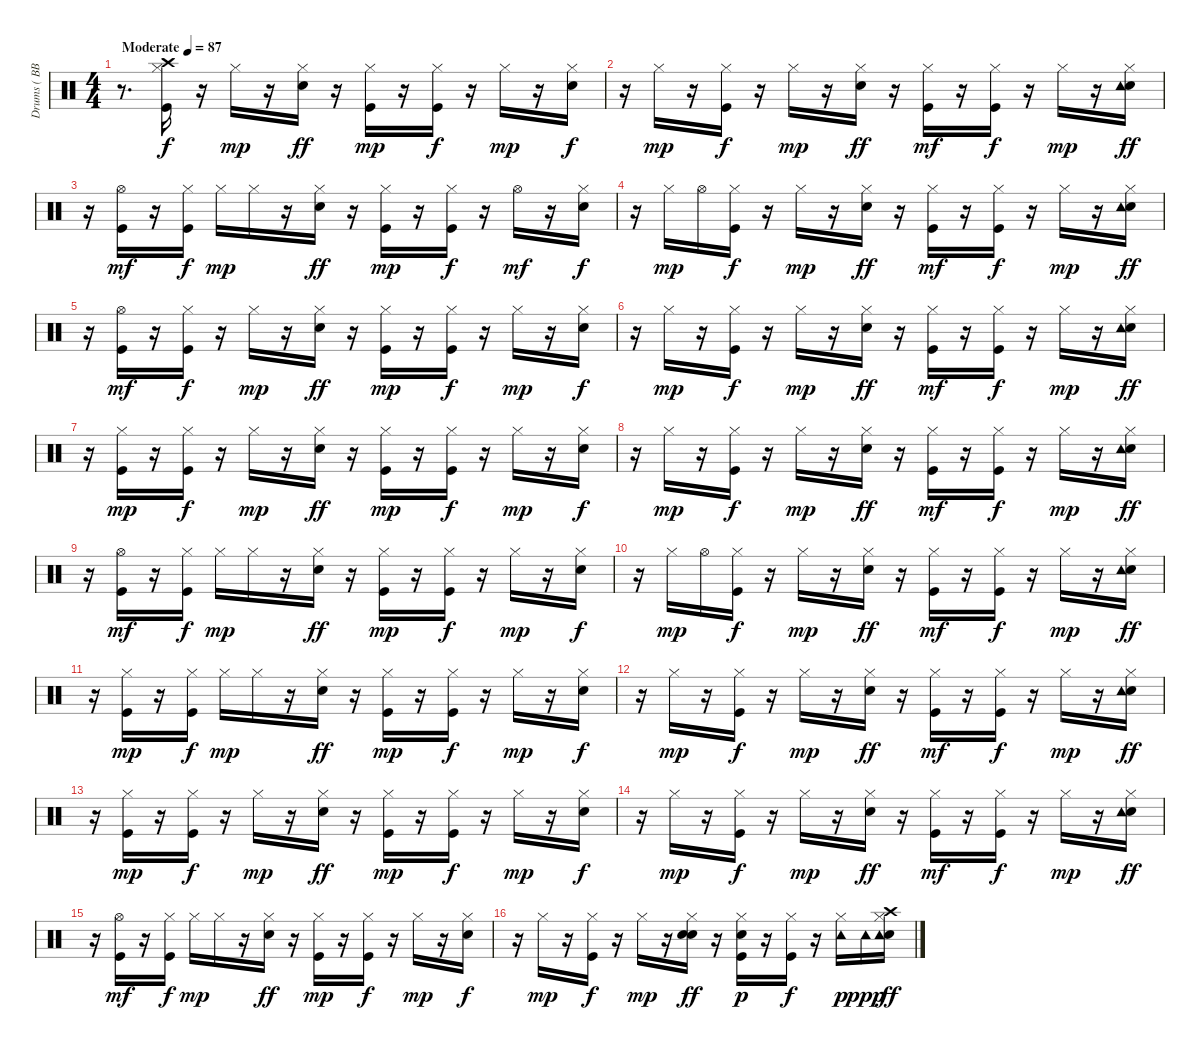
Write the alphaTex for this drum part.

\track ("Drums ( BB )" "Drums ( BB") {instrument percussion}
\staff {score}
\articulation defaults
\ts (4 4)
\tempo (87 "Moderate")
\clef neutral
\ks c
r.8{d dy f} ("Kick (hit)" "Hi-Hat (closed)" "Crash high (hit)").16 r.16 "Hi-Hat (closed)".16{dy mp} r.16 ("Snare (hit) 2" "Hi-Hat (closed)").16{dy ff} r.16 ("Kick (hit)" "Hi-Hat (closed)").16{dy mp} r.16 ("Kick (hit)" "Hi-Hat (closed)").16{dy f} r.16 "Hi-Hat (closed)".16{dy mp} r.16 ("Snare (hit) 2" "Hi-Hat (closed)").16{dy f} |
r.16 "Hi-Hat (closed)".16{dy mp} r.16 ("Kick (hit)" "Hi-Hat (closed)").16{dy f} r.16 "Hi-Hat (closed)".16{dy mp} r.16 ("Snare (hit) 2" "Hi-Hat (closed)").16{dy ff} r.16 ("Kick (hit)" "Hi-Hat (closed)").16{dy mf} r.16 ("Kick (hit)" "Hi-Hat (closed)").16{dy f} r.16 "Hi-Hat (closed)".16{dy mp} r.16 ("Snare (hit) 2" "Hi-Hat (closed)" "Tambourine (hit)").16{dy ff} |
r.16 ("Kick (hit)" "Hi-Hat (open)").16{dy mf} r.16 ("Kick (hit)" "Hi-Hat (closed)").16{dy f} "Hi-Hat (closed)".16{dy mp} "Hi-Hat (closed)".16 r.16 ("Snare (hit) 2" "Hi-Hat (closed)").16{dy ff} r.16 ("Kick (hit)" "Hi-Hat (closed)").16{dy mp} r.16 ("Kick (hit)" "Hi-Hat (closed)").16{dy f} r.16 "Hi-Hat (open)".16{dy mf} r.16 ("Snare (hit) 2" "Hi-Hat (closed)").16{dy f} |
r.16 "Hi-Hat (closed)".16{dy mp} "Hi-Hat (open)".16 ("Kick (hit)" "Hi-Hat (closed)").16{dy f} r.16 "Hi-Hat (closed)".16{dy mp} r.16 ("Snare (hit) 2" "Hi-Hat (closed)").16{dy ff} r.16 ("Kick (hit)" "Hi-Hat (closed)").16{dy mf} r.16 ("Kick (hit)" "Hi-Hat (closed)").16{dy f} r.16 "Hi-Hat (closed)".16{dy mp} r.16 ("Snare (hit) 2" "Hi-Hat (closed)" "Tambourine (hit)").16{dy ff} |
r.16 ("Kick (hit)" "Hi-Hat (open)").16{dy mf} r.16 ("Kick (hit)" "Hi-Hat (closed)").16{dy f} r.16 "Hi-Hat (closed)".16{dy mp} r.16 ("Snare (hit) 2" "Hi-Hat (closed)").16{dy ff} r.16 ("Kick (hit)" "Hi-Hat (closed)").16{dy mp} r.16 ("Kick (hit)" "Hi-Hat (closed)").16{dy f} r.16 "Hi-Hat (closed)".16{dy mp} r.16 ("Snare (hit) 2" "Hi-Hat (closed)").16{dy f} |
r.16 "Hi-Hat (closed)".16{dy mp} r.16 ("Kick (hit)" "Hi-Hat (closed)").16{dy f} r.16 "Hi-Hat (closed)".16{dy mp} r.16 ("Snare (hit) 2" "Hi-Hat (closed)").16{dy ff} r.16 ("Kick (hit)" "Hi-Hat (closed)").16{dy mf} r.16 ("Kick (hit)" "Hi-Hat (closed)").16{dy f} r.16 "Hi-Hat (closed)".16{dy mp} r.16 ("Snare (hit) 2" "Hi-Hat (closed)" "Tambourine (hit)").16{dy ff} |
r.16 ("Kick (hit)" "Hi-Hat (closed)").16{dy mp} r.16 ("Kick (hit)" "Hi-Hat (closed)").16{dy f} r.16 "Hi-Hat (closed)".16{dy mp} r.16 ("Snare (hit) 2" "Hi-Hat (closed)").16{dy ff} r.16 ("Kick (hit)" "Hi-Hat (closed)").16{dy mp} r.16 ("Kick (hit)" "Hi-Hat (closed)").16{dy f} r.16 "Hi-Hat (closed)".16{dy mp} r.16 ("Snare (hit) 2" "Hi-Hat (closed)").16{dy f} |
r.16 "Hi-Hat (closed)".16{dy mp} r.16 ("Kick (hit)" "Hi-Hat (closed)").16{dy f} r.16 "Hi-Hat (closed)".16{dy mp} r.16 ("Snare (hit) 2" "Hi-Hat (closed)").16{dy ff} r.16 ("Kick (hit)" "Hi-Hat (closed)").16{dy mf} r.16 ("Kick (hit)" "Hi-Hat (closed)").16{dy f} r.16 "Hi-Hat (closed)".16{dy mp} r.16 ("Snare (hit) 2" "Hi-Hat (closed)" "Tambourine (hit)").16{dy ff} |
r.16 ("Kick (hit)" "Hi-Hat (open)").16{dy mf} r.16 ("Kick (hit)" "Hi-Hat (closed)").16{dy f} "Hi-Hat (closed)".16{dy mp} "Hi-Hat (closed)".16 r.16 ("Snare (hit) 2" "Hi-Hat (closed)").16{dy ff} r.16 ("Kick (hit)" "Hi-Hat (closed)").16{dy mp} r.16 ("Kick (hit)" "Hi-Hat (closed)").16{dy f} r.16 "Hi-Hat (closed)".16{dy mp} r.16 ("Snare (hit) 2" "Hi-Hat (closed)").16{dy f} |
r.16 "Hi-Hat (closed)".16{dy mp} "Hi-Hat (open)".16 ("Kick (hit)" "Hi-Hat (closed)").16{dy f} r.16 "Hi-Hat (closed)".16{dy mp} r.16 ("Snare (hit) 2" "Hi-Hat (closed)").16{dy ff} r.16 ("Kick (hit)" "Hi-Hat (closed)").16{dy mf} r.16 ("Kick (hit)" "Hi-Hat (closed)").16{dy f} r.16 "Hi-Hat (closed)".16{dy mp} r.16 ("Snare (hit) 2" "Hi-Hat (closed)" "Tambourine (hit)").16{dy ff} |
r.16 ("Kick (hit)" "Hi-Hat (closed)").16{dy mp} r.16 ("Kick (hit)" "Hi-Hat (closed)").16{dy f} "Hi-Hat (closed)".16{dy mp} "Hi-Hat (closed)".16 r.16 ("Snare (hit) 2" "Hi-Hat (closed)").16{dy ff} r.16 ("Kick (hit)" "Hi-Hat (closed)").16{dy mp} r.16 ("Kick (hit)" "Hi-Hat (closed)").16{dy f} r.16 "Hi-Hat (closed)".16{dy mp} r.16 ("Snare (hit) 2" "Hi-Hat (closed)").16{dy f} |
r.16 "Hi-Hat (closed)".16{dy mp} r.16 ("Kick (hit)" "Hi-Hat (closed)").16{dy f} r.16 "Hi-Hat (closed)".16{dy mp} r.16 ("Snare (hit) 2" "Hi-Hat (closed)").16{dy ff} r.16 ("Kick (hit)" "Hi-Hat (closed)").16{dy mf} r.16 ("Kick (hit)" "Hi-Hat (closed)").16{dy f} r.16 "Hi-Hat (closed)".16{dy mp} r.16 ("Snare (hit) 2" "Hi-Hat (closed)" "Tambourine (hit)").16{dy ff} |
r.16 ("Kick (hit)" "Hi-Hat (closed)").16{dy mp} r.16 ("Kick (hit)" "Hi-Hat (closed)").16{dy f} r.16 "Hi-Hat (closed)".16{dy mp} r.16 ("Snare (hit) 2" "Hi-Hat (closed)").16{dy ff} r.16 ("Kick (hit)" "Hi-Hat (closed)").16{dy mp} r.16 ("Kick (hit)" "Hi-Hat (closed)").16{dy f} r.16 "Hi-Hat (closed)".16{dy mp} r.16 ("Snare (hit) 2" "Hi-Hat (closed)").16{dy f} |
r.16 "Hi-Hat (closed)".16{dy mp} r.16 ("Kick (hit)" "Hi-Hat (closed)").16{dy f} r.16 "Hi-Hat (closed)".16{dy mp} r.16 ("Snare (hit) 2" "Hi-Hat (closed)").16{dy ff} r.16 ("Kick (hit)" "Hi-Hat (closed)").16{dy mf} r.16 ("Kick (hit)" "Hi-Hat (closed)").16{dy f} r.16 "Hi-Hat (closed)".16{dy mp} r.16 ("Snare (hit) 2" "Hi-Hat (closed)" "Tambourine (hit)").16{dy ff} |
r.16 ("Kick (hit)" "Hi-Hat (open)").16{dy mf} r.16 ("Kick (hit)" "Hi-Hat (closed)").16{dy f} "Hi-Hat (closed)".16{dy mp} "Hi-Hat (closed)".16 r.16 ("Snare (hit) 2" "Hi-Hat (closed)").16{dy ff} r.16 ("Kick (hit)" "Hi-Hat (closed)").16{dy mp} r.16 ("Kick (hit)" "Hi-Hat (closed)").16{dy f} r.16 "Hi-Hat (closed)".16{dy mp} r.16 ("Snare (hit) 2" "Hi-Hat (closed)").16{dy f} |
r.16 "Hi-Hat (closed)".16{dy mp} r.16 ("Kick (hit)" "Hi-Hat (closed)").16{dy f} r.16 "Hi-Hat (closed)".16{dy mp} r.16 ("Snare (hit) 2" "Hi-Hat (closed)" "Hand Clap (hit)").16{dy ff} r.16 ("Kick (hit)" "Hi-Hat (closed)" "Hand Clap (hit)").16{dy p} r.16 ("Kick (hit)" "Hi-Hat (closed)").16{dy f} r.16 ("Hi-Hat (closed)" "Tambourine (hit)").16{dy p} "Tambourine (hit)".16{dy ppp} ("Snare (hit) 2" "Hi-Hat (closed)" "Crash high (hit)" "Tambourine (hit)").16{dy ff}
